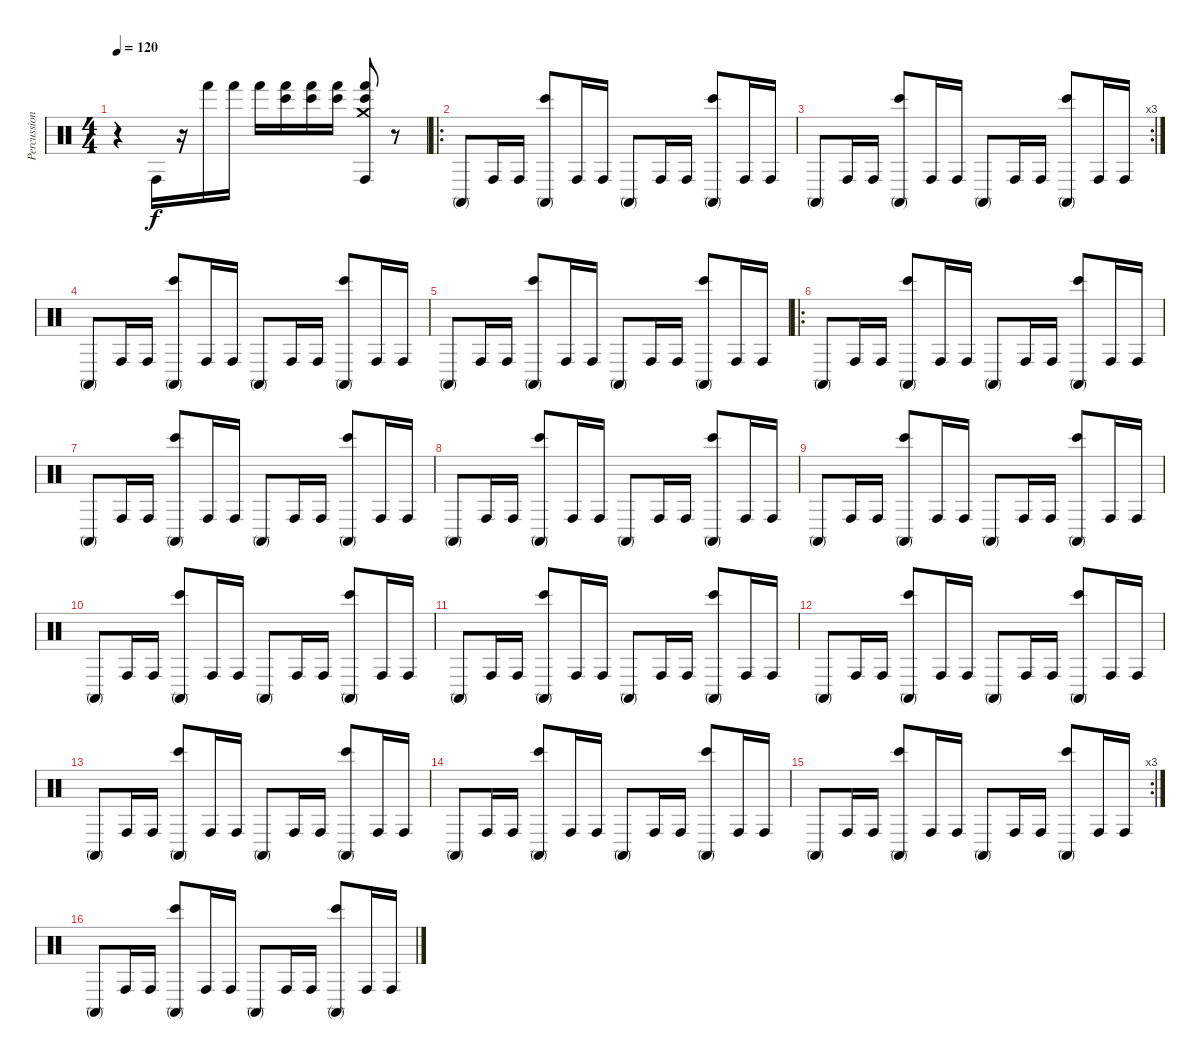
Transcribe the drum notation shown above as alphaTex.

\track ("Percussions" "Percussion") {instrument percussion}
\staff {score}
\articulation defaults
\ts (4 4)
\tempo 120
\clef neutral
\ks c
r.4{dy f} "Conga high (hit)".16 r.16 "Hand (hit)".16 "Hand (hit)".16 "Hand (hit)".16 ("Hand (hit)" "Bongo High (hit)").16 ("Hand (hit)" "Bongo High (hit)").16 ("Hand (hit)" "Bongo High (hit)").16 ("Crash medium (hit)" "Hand (hit)" "Conga high (hit)" "Bongo High (hit)").8 r.8 |
\ro "Conga high (mute)".8 "Conga high (hit)".16 "Conga high (hit)".16
("Conga high (mute)" "Bongo High (hit)").8 "Conga high (hit)".16 "Conga high (hit)".16 "Conga high (mute)".8 "Conga high (hit)".16 "Conga high (hit)".16 ("Conga high (mute)" "Bongo High (hit)").8 "Conga high (hit)".16 "Conga high (hit)".16 |
\rc 3 "Conga high (mute)".8 "Conga high (hit)".16 "Conga high (hit)".16
("Conga high (mute)" "Bongo High (hit)").8 "Conga high (hit)".16 "Conga high (hit)".16 "Conga high (mute)".8 "Conga high (hit)".16 "Conga high (hit)".16 ("Conga high (mute)" "Bongo High (hit)").8 "Conga high (hit)".16 "Conga high (hit)".16 |
"Conga high (mute)".8 "Conga high (hit)".16 "Conga high (hit)".16 ("Conga high (mute)" "Bongo High (hit)").8 "Conga high (hit)".16 "Conga high (hit)".16 "Conga high (mute)".8 "Conga high (hit)".16 "Conga high (hit)".16 ("Conga high (mute)" "Bongo High (hit)").8 "Conga high (hit)".16 "Conga high (hit)".16 |
"Conga high (mute)".8 "Conga high (hit)".16 "Conga high (hit)".16 ("Conga high (mute)" "Bongo High (hit)").8 "Conga high (hit)".16 "Conga high (hit)".16 "Conga high (mute)".8 "Conga high (hit)".16 "Conga high (hit)".16 ("Conga high (mute)" "Bongo High (hit)").8 "Conga high (hit)".16 "Conga high (hit)".16 |
\ro "Conga high (mute)".8 "Conga high (hit)".16 "Conga high (hit)".16
("Conga high (mute)" "Bongo High (hit)").8 "Conga high (hit)".16 "Conga high (hit)".16 "Conga high (mute)".8 "Conga high (hit)".16 "Conga high (hit)".16 ("Conga high (mute)" "Bongo High (hit)").8 "Conga high (hit)".16 "Conga high (hit)".16 |
"Conga high (mute)".8 "Conga high (hit)".16 "Conga high (hit)".16 ("Conga high (mute)" "Bongo High (hit)").8 "Conga high (hit)".16 "Conga high (hit)".16 "Conga high (mute)".8 "Conga high (hit)".16 "Conga high (hit)".16 ("Conga high (mute)" "Bongo High (hit)").8 "Conga high (hit)".16 "Conga high (hit)".16 |
"Conga high (mute)".8 "Conga high (hit)".16 "Conga high (hit)".16 ("Conga high (mute)" "Bongo High (hit)").8 "Conga high (hit)".16 "Conga high (hit)".16 "Conga high (mute)".8 "Conga high (hit)".16 "Conga high (hit)".16 ("Conga high (mute)" "Bongo High (hit)").8 "Conga high (hit)".16 "Conga high (hit)".16 |
"Conga high (mute)".8 "Conga high (hit)".16 "Conga high (hit)".16 ("Conga high (mute)" "Bongo High (hit)").8 "Conga high (hit)".16 "Conga high (hit)".16 "Conga high (mute)".8 "Conga high (hit)".16 "Conga high (hit)".16 ("Conga high (mute)" "Bongo High (hit)").8 "Conga high (hit)".16 "Conga high (hit)".16 |
"Conga high (mute)".8 "Conga high (hit)".16 "Conga high (hit)".16 ("Conga high (mute)" "Bongo High (hit)").8 "Conga high (hit)".16 "Conga high (hit)".16 "Conga high (mute)".8 "Conga high (hit)".16 "Conga high (hit)".16 ("Conga high (mute)" "Bongo High (hit)").8 "Conga high (hit)".16 "Conga high (hit)".16 |
"Conga high (mute)".8 "Conga high (hit)".16 "Conga high (hit)".16 ("Conga high (mute)" "Bongo High (hit)").8 "Conga high (hit)".16 "Conga high (hit)".16 "Conga high (mute)".8 "Conga high (hit)".16 "Conga high (hit)".16 ("Conga high (mute)" "Bongo High (hit)").8 "Conga high (hit)".16 "Conga high (hit)".16 |
"Conga high (mute)".8 "Conga high (hit)".16 "Conga high (hit)".16 ("Conga high (mute)" "Bongo High (hit)").8 "Conga high (hit)".16 "Conga high (hit)".16 "Conga high (mute)".8 "Conga high (hit)".16 "Conga high (hit)".16 ("Conga high (mute)" "Bongo High (hit)").8 "Conga high (hit)".16 "Conga high (hit)".16 |
"Conga high (mute)".8 "Conga high (hit)".16 "Conga high (hit)".16 ("Conga high (mute)" "Bongo High (hit)").8 "Conga high (hit)".16 "Conga high (hit)".16 "Conga high (mute)".8 "Conga high (hit)".16 "Conga high (hit)".16 ("Conga high (mute)" "Bongo High (hit)").8 "Conga high (hit)".16 "Conga high (hit)".16 |
"Conga high (mute)".8 "Conga high (hit)".16 "Conga high (hit)".16 ("Conga high (mute)" "Bongo High (hit)").8 "Conga high (hit)".16 "Conga high (hit)".16 "Conga high (mute)".8 "Conga high (hit)".16 "Conga high (hit)".16 ("Conga high (mute)" "Bongo High (hit)").8 "Conga high (hit)".16 "Conga high (hit)".16 |
\rc 3 "Conga high (mute)".8 "Conga high (hit)".16 "Conga high (hit)".16
("Conga high (mute)" "Bongo High (hit)").8 "Conga high (hit)".16 "Conga high (hit)".16 "Conga high (mute)".8 "Conga high (hit)".16 "Conga high (hit)".16 ("Conga high (mute)" "Bongo High (hit)").8 "Conga high (hit)".16 "Conga high (hit)".16 |
"Conga high (mute)".8 "Conga high (hit)".16 "Conga high (hit)".16 ("Conga high (mute)" "Bongo High (hit)").8 "Conga high (hit)".16 "Conga high (hit)".16 "Conga high (mute)".8 "Conga high (hit)".16 "Conga high (hit)".16 ("Conga high (mute)" "Bongo High (hit)").8 "Conga high (hit)".16 "Conga high (hit)".16
